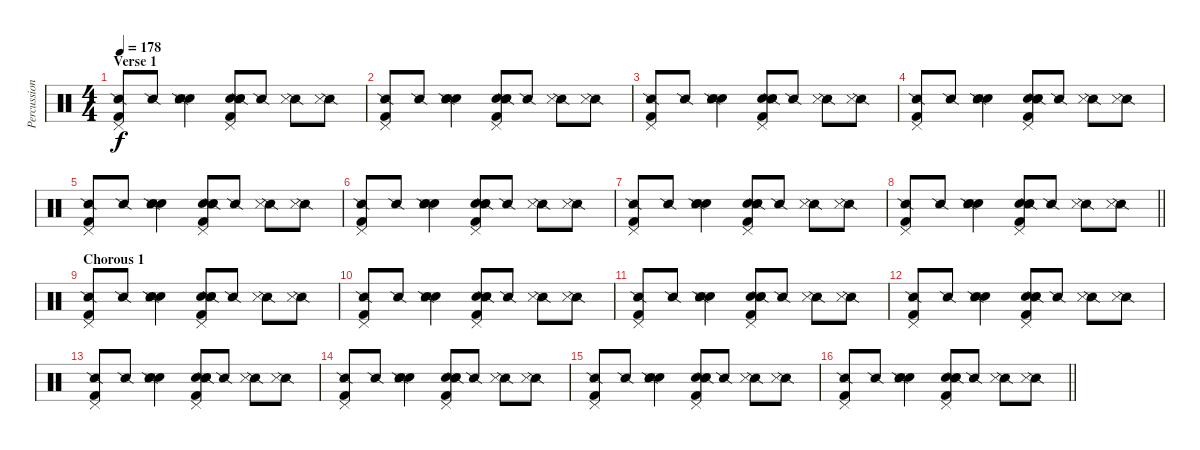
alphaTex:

\track ("Percussion" "Percussion") {instrument percussion}
\staff {score}
\articulation defaults
\ts (4 4)
\section ("" "Verse 1")
\tempo 178
\clef neutral
\ks c
("Pedal Hi-Hat (hit)" "Kick (hit) 2" "Snare (side stick) 2").8{dy f} "Snare (side stick) 2".8 ("Hand Clap (hit)" "Hand Clap (hit)" "Snare (side stick) 2" "Metronome (hit)").4 ("Pedal Hi-Hat (hit)" "Hand Clap (hit)" "Hand Clap (hit)" "Kick (hit) 2" "Snare (side stick) 2").8 "Snare (side stick) 2".8 ("Snare (side stick) 2" "Metronome (hit)").8 ("Snare (side stick) 2" "Metronome (hit)").8 |
("Pedal Hi-Hat (hit)" "Kick (hit) 2" "Snare (side stick) 2").8 "Snare (side stick) 2".8 ("Hand Clap (hit)" "Hand Clap (hit)" "Snare (side stick) 2" "Metronome (hit)").4 ("Pedal Hi-Hat (hit)" "Hand Clap (hit)" "Hand Clap (hit)" "Kick (hit) 2" "Snare (side stick) 2").8 "Snare (side stick) 2".8 ("Snare (side stick) 2" "Metronome (hit)").8 ("Snare (side stick) 2" "Metronome (hit)").8 |
("Pedal Hi-Hat (hit)" "Kick (hit) 2" "Snare (side stick) 2").8 "Snare (side stick) 2".8 ("Hand Clap (hit)" "Hand Clap (hit)" "Snare (side stick) 2" "Metronome (hit)").4 ("Pedal Hi-Hat (hit)" "Hand Clap (hit)" "Hand Clap (hit)" "Kick (hit) 2" "Snare (side stick) 2").8 "Snare (side stick) 2".8 ("Snare (side stick) 2" "Metronome (hit)").8 ("Snare (side stick) 2" "Metronome (hit)").8 |
("Pedal Hi-Hat (hit)" "Kick (hit) 2" "Snare (side stick) 2").8 "Snare (side stick) 2".8 ("Hand Clap (hit)" "Hand Clap (hit)" "Snare (side stick) 2" "Metronome (hit)").4 ("Pedal Hi-Hat (hit)" "Hand Clap (hit)" "Hand Clap (hit)" "Kick (hit) 2" "Snare (side stick) 2").8 "Snare (side stick) 2".8 ("Snare (side stick) 2" "Metronome (hit)").8 ("Snare (side stick) 2" "Metronome (hit)").8 |
("Pedal Hi-Hat (hit)" "Kick (hit) 2" "Snare (side stick) 2").8 "Snare (side stick) 2".8 ("Hand Clap (hit)" "Hand Clap (hit)" "Snare (side stick) 2" "Metronome (hit)").4 ("Pedal Hi-Hat (hit)" "Hand Clap (hit)" "Hand Clap (hit)" "Kick (hit) 2" "Snare (side stick) 2").8 "Snare (side stick) 2".8 ("Snare (side stick) 2" "Metronome (hit)").8 ("Snare (side stick) 2" "Metronome (hit)").8 |
("Pedal Hi-Hat (hit)" "Kick (hit) 2" "Snare (side stick) 2").8 "Snare (side stick) 2".8 ("Hand Clap (hit)" "Hand Clap (hit)" "Snare (side stick) 2" "Metronome (hit)").4 ("Pedal Hi-Hat (hit)" "Hand Clap (hit)" "Hand Clap (hit)" "Kick (hit) 2" "Snare (side stick) 2").8 "Snare (side stick) 2".8 ("Snare (side stick) 2" "Metronome (hit)").8 ("Snare (side stick) 2" "Metronome (hit)").8 |
("Pedal Hi-Hat (hit)" "Kick (hit) 2" "Snare (side stick) 2").8 "Snare (side stick) 2".8 ("Hand Clap (hit)" "Hand Clap (hit)" "Snare (side stick) 2" "Metronome (hit)").4 ("Pedal Hi-Hat (hit)" "Hand Clap (hit)" "Hand Clap (hit)" "Kick (hit) 2" "Snare (side stick) 2").8 "Snare (side stick) 2".8 ("Snare (side stick) 2" "Metronome (hit)").8 ("Snare (side stick) 2" "Metronome (hit)").8 |
\barLineRight lightlight
("Pedal Hi-Hat (hit)" "Kick (hit) 2" "Snare (side stick) 2").8 "Snare (side stick) 2".8 ("Hand Clap (hit)" "Hand Clap (hit)" "Snare (side stick) 2" "Metronome (hit)").4 ("Pedal Hi-Hat (hit)" "Hand Clap (hit)" "Hand Clap (hit)" "Kick (hit) 2" "Snare (side stick) 2").8 "Snare (side stick) 2".8 ("Snare (side stick) 2" "Metronome (hit)").8 ("Snare (side stick) 2" "Metronome (hit)").8 |
\section ("" "Chorous 1")
("Pedal Hi-Hat (hit)" "Kick (hit) 2" "Snare (side stick) 2").8 "Snare (side stick) 2".8 ("Hand Clap (hit)" "Hand Clap (hit)" "Snare (side stick) 2" "Metronome (hit)").4 ("Pedal Hi-Hat (hit)" "Hand Clap (hit)" "Hand Clap (hit)" "Kick (hit) 2" "Snare (side stick) 2").8 "Snare (side stick) 2".8 ("Snare (side stick) 2" "Metronome (hit)").8 ("Snare (side stick) 2" "Metronome (hit)").8 |
("Pedal Hi-Hat (hit)" "Kick (hit) 2" "Snare (side stick) 2").8 "Snare (side stick) 2".8 ("Hand Clap (hit)" "Hand Clap (hit)" "Snare (side stick) 2" "Metronome (hit)").4 ("Pedal Hi-Hat (hit)" "Hand Clap (hit)" "Hand Clap (hit)" "Kick (hit) 2" "Snare (side stick) 2").8 "Snare (side stick) 2".8 ("Snare (side stick) 2" "Metronome (hit)").8 ("Snare (side stick) 2" "Metronome (hit)").8 |
("Pedal Hi-Hat (hit)" "Kick (hit) 2" "Snare (side stick) 2").8 "Snare (side stick) 2".8 ("Hand Clap (hit)" "Hand Clap (hit)" "Snare (side stick) 2" "Metronome (hit)").4 ("Pedal Hi-Hat (hit)" "Hand Clap (hit)" "Hand Clap (hit)" "Kick (hit) 2" "Snare (side stick) 2").8 "Snare (side stick) 2".8 ("Snare (side stick) 2" "Metronome (hit)").8 ("Snare (side stick) 2" "Metronome (hit)").8 |
("Pedal Hi-Hat (hit)" "Kick (hit) 2" "Snare (side stick) 2").8 "Snare (side stick) 2".8 ("Hand Clap (hit)" "Hand Clap (hit)" "Snare (side stick) 2" "Metronome (hit)").4 ("Pedal Hi-Hat (hit)" "Hand Clap (hit)" "Hand Clap (hit)" "Kick (hit) 2" "Snare (side stick) 2").8 "Snare (side stick) 2".8 ("Snare (side stick) 2" "Metronome (hit)").8 ("Snare (side stick) 2" "Metronome (hit)").8 |
("Pedal Hi-Hat (hit)" "Kick (hit) 2" "Snare (side stick) 2").8 "Snare (side stick) 2".8 ("Hand Clap (hit)" "Hand Clap (hit)" "Snare (side stick) 2" "Metronome (hit)").4 ("Pedal Hi-Hat (hit)" "Hand Clap (hit)" "Hand Clap (hit)" "Kick (hit) 2" "Snare (side stick) 2").8 "Snare (side stick) 2".8 ("Snare (side stick) 2" "Metronome (hit)").8 ("Snare (side stick) 2" "Metronome (hit)").8 |
("Pedal Hi-Hat (hit)" "Kick (hit) 2" "Snare (side stick) 2").8 "Snare (side stick) 2".8 ("Hand Clap (hit)" "Hand Clap (hit)" "Snare (side stick) 2" "Metronome (hit)").4 ("Pedal Hi-Hat (hit)" "Hand Clap (hit)" "Hand Clap (hit)" "Kick (hit) 2" "Snare (side stick) 2").8 "Snare (side stick) 2".8 ("Snare (side stick) 2" "Metronome (hit)").8 ("Snare (side stick) 2" "Metronome (hit)").8 |
("Pedal Hi-Hat (hit)" "Kick (hit) 2" "Snare (side stick) 2").8 "Snare (side stick) 2".8 ("Hand Clap (hit)" "Hand Clap (hit)" "Snare (side stick) 2" "Metronome (hit)").4 ("Pedal Hi-Hat (hit)" "Hand Clap (hit)" "Hand Clap (hit)" "Kick (hit) 2" "Snare (side stick) 2").8 "Snare (side stick) 2".8 ("Snare (side stick) 2" "Metronome (hit)").8 ("Snare (side stick) 2" "Metronome (hit)").8 |
\barLineRight lightlight
("Pedal Hi-Hat (hit)" "Kick (hit) 2" "Snare (side stick) 2").8 "Snare (side stick) 2".8 ("Hand Clap (hit)" "Hand Clap (hit)" "Snare (side stick) 2" "Metronome (hit)").4 ("Pedal Hi-Hat (hit)" "Hand Clap (hit)" "Hand Clap (hit)" "Kick (hit) 2" "Snare (side stick) 2").8 "Snare (side stick) 2".8 ("Snare (side stick) 2" "Metronome (hit)").8 ("Snare (side stick) 2" "Metronome (hit)").8
